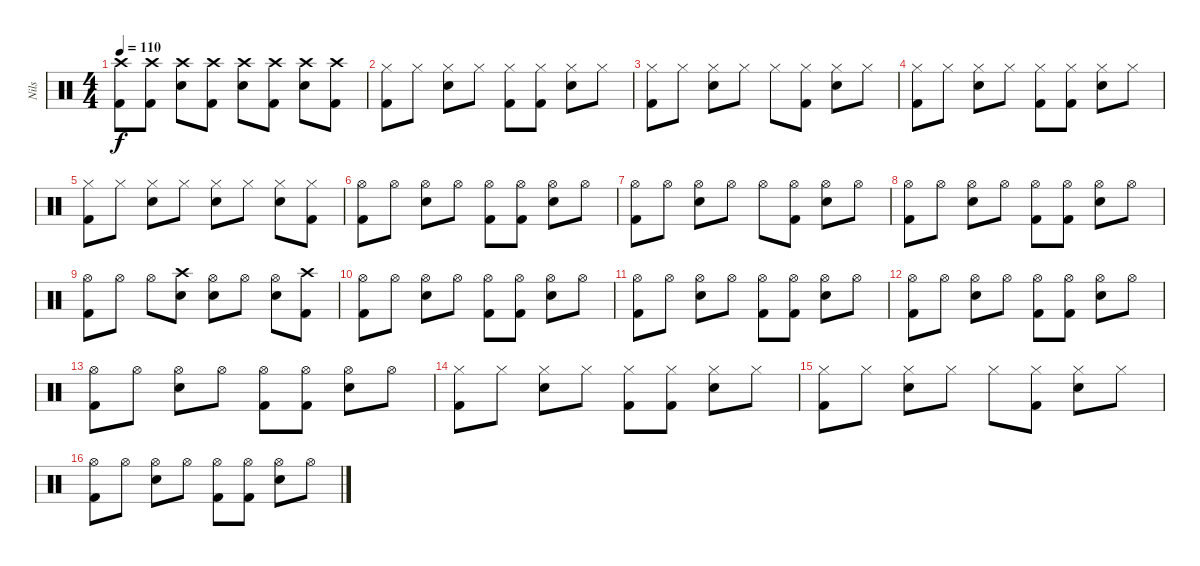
\track ("Nils" "Nils") {instrument percussion}
\staff {score}
\articulation defaults
\ts (4 4)
\tempo 110
\clef neutral
\ks c
("Crash high (hit)" "Kick (hit) 2").8{dy f} ("Crash high (hit)" "Kick (hit) 2").8 ("Crash high (hit)" "Snare (hit) 2").8 ("Crash high (hit)" "Kick (hit) 2").8 ("Crash high (hit)" "Snare (hit) 2").8 ("Crash high (hit)" "Kick (hit) 2").8 ("Crash high (hit)" "Snare (hit) 2").8 ("Crash high (hit)" "Kick (hit) 2").8 |
("Hi-Hat (closed)" "Kick (hit) 2").8{volume 11} "Hi-Hat (closed)".8 ("Hi-Hat (closed)" "Snare (hit) 2").8 "Hi-Hat (closed)".8 ("Hi-Hat (closed)" "Kick (hit) 2").8 ("Hi-Hat (closed)" "Kick (hit) 2").8 ("Hi-Hat (closed)" "Snare (hit) 2").8 "Hi-Hat (closed)".8 |
("Hi-Hat (closed)" "Kick (hit) 2").8 "Hi-Hat (closed)".8 ("Hi-Hat (closed)" "Snare (hit) 2").8 "Hi-Hat (closed)".8 "Hi-Hat (closed)".8 ("Hi-Hat (closed)" "Kick (hit) 2").8 ("Hi-Hat (closed)" "Snare (hit) 2").8 "Hi-Hat (closed)".8 |
("Hi-Hat (closed)" "Kick (hit) 2").8 "Hi-Hat (closed)".8 ("Hi-Hat (closed)" "Snare (hit) 2").8 "Hi-Hat (closed)".8 ("Hi-Hat (closed)" "Kick (hit) 2").8 ("Hi-Hat (closed)" "Kick (hit) 2").8 ("Hi-Hat (closed)" "Snare (hit) 2").8 "Hi-Hat (closed)".8 |
("Hi-Hat (closed)" "Kick (hit) 2").8 "Hi-Hat (closed)".8 ("Hi-Hat (closed)" "Snare (hit) 2").8 "Hi-Hat (closed)".8 ("Hi-Hat (closed)" "Snare (hit) 2").8 "Hi-Hat (closed)".8 ("Hi-Hat (closed)" "Snare (hit) 2").8 ("Hi-Hat (closed)" "Kick (hit) 2").8 |
("Hi-Hat (open)" "Kick (hit) 2").8 "Hi-Hat (open)".8 ("Hi-Hat (open)" "Snare (hit) 2").8 "Hi-Hat (open)".8 ("Hi-Hat (open)" "Kick (hit) 2").8 ("Hi-Hat (open)" "Kick (hit) 2").8 ("Hi-Hat (open)" "Snare (hit) 2").8 "Hi-Hat (open)".8 |
("Hi-Hat (open)" "Kick (hit) 2").8 "Hi-Hat (open)".8 ("Hi-Hat (open)" "Snare (hit) 2").8 "Hi-Hat (open)".8 "Hi-Hat (open)".8 ("Hi-Hat (open)" "Kick (hit) 2").8 ("Hi-Hat (open)" "Snare (hit) 2").8 "Hi-Hat (open)".8 |
("Hi-Hat (open)" "Kick (hit) 2").8 "Hi-Hat (open)".8 ("Hi-Hat (open)" "Snare (hit) 2").8 "Hi-Hat (open)".8 ("Hi-Hat (open)" "Kick (hit) 2").8 ("Hi-Hat (open)" "Kick (hit) 2").8 ("Hi-Hat (open)" "Snare (hit) 2").8 "Hi-Hat (open)".8 |
("Hi-Hat (open)" "Kick (hit) 2").8 "Hi-Hat (open)".8 "Hi-Hat (open)".8 ("Crash high (hit)" "Snare (hit) 2").8 ("Hi-Hat (open)" "Snare (hit) 2").8 "Hi-Hat (open)".8 ("Hi-Hat (open)" "Snare (hit) 2").8 ("Crash high (hit)" "Kick (hit) 2").8 |
("Hi-Hat (open)" "Kick (hit) 2").8 "Hi-Hat (open)".8 ("Hi-Hat (open)" "Snare (hit) 2").8 "Hi-Hat (open)".8 ("Hi-Hat (open)" "Kick (hit) 2").8 ("Hi-Hat (open)" "Kick (hit) 2").8 ("Hi-Hat (open)" "Snare (hit) 2").8 "Hi-Hat (open)".8 |
("Hi-Hat (open)" "Kick (hit) 2").8 "Hi-Hat (open)".8 ("Hi-Hat (open)" "Snare (hit) 2").8 "Hi-Hat (open)".8 ("Hi-Hat (open)" "Kick (hit) 2").8 ("Hi-Hat (open)" "Kick (hit) 2").8 ("Hi-Hat (open)" "Snare (hit) 2").8 "Hi-Hat (open)".8 |
("Hi-Hat (open)" "Kick (hit) 2").8 "Hi-Hat (open)".8 ("Hi-Hat (open)" "Snare (hit) 2").8 "Hi-Hat (open)".8 ("Hi-Hat (open)" "Kick (hit) 2").8 ("Hi-Hat (open)" "Kick (hit) 2").8 ("Hi-Hat (open)" "Snare (hit) 2").8 "Hi-Hat (open)".8 |
("Hi-Hat (open)" "Kick (hit) 2").8 "Hi-Hat (open)".8 ("Hi-Hat (open)" "Snare (hit) 2").8 "Hi-Hat (open)".8 ("Hi-Hat (open)" "Kick (hit) 2").8 ("Hi-Hat (open)" "Kick (hit) 2").8 ("Hi-Hat (open)" "Snare (hit) 2").8 "Hi-Hat (open)".8 |
("Hi-Hat (closed)" "Kick (hit) 2").8{volume 11} "Hi-Hat (closed)".8 ("Hi-Hat (closed)" "Snare (hit) 2").8 "Hi-Hat (closed)".8 ("Hi-Hat (closed)" "Kick (hit) 2").8 ("Hi-Hat (closed)" "Kick (hit) 2").8 ("Hi-Hat (closed)" "Snare (hit) 2").8 "Hi-Hat (closed)".8 |
("Hi-Hat (closed)" "Kick (hit) 2").8 "Hi-Hat (closed)".8 ("Hi-Hat (closed)" "Snare (hit) 2").8 "Hi-Hat (closed)".8 "Hi-Hat (closed)".8 ("Hi-Hat (closed)" "Kick (hit) 2").8 ("Hi-Hat (closed)" "Snare (hit) 2").8 "Hi-Hat (closed)".8 |
("Hi-Hat (open)" "Kick (hit) 2").8 "Hi-Hat (open)".8 ("Hi-Hat (open)" "Snare (hit) 2").8 "Hi-Hat (open)".8 ("Hi-Hat (open)" "Kick (hit) 2").8 ("Hi-Hat (open)" "Kick (hit) 2").8 ("Hi-Hat (open)" "Snare (hit) 2").8 "Hi-Hat (open)".8
